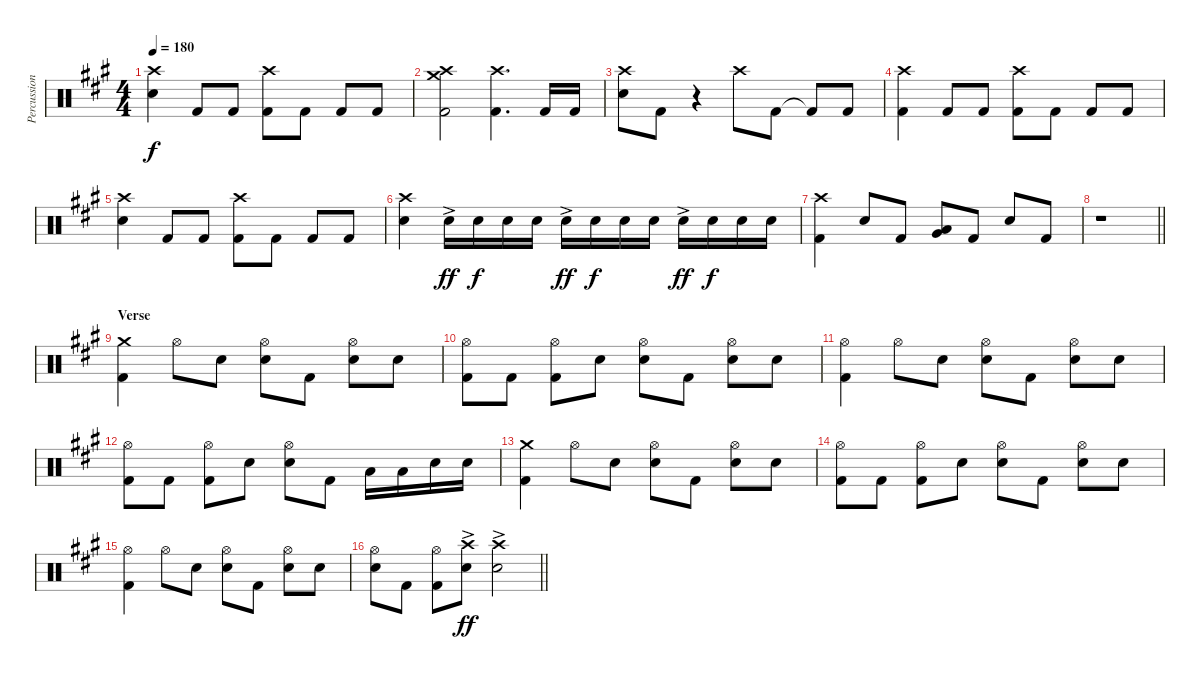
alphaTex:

\track ("Percussion" "Percussion") {instrument percussion}
\staff {score}
\articulation defaults
\ts (4 4)
\tempo 180
\clef neutral
\ks f#minor
("Crash high (hit)" "Electric Snare (hit)").4{dy f} "Kick (hit) 2".8 "Kick (hit) 2".8 ("Crash high (hit)" "Kick (hit) 2").8 "Kick (hit) 2".8 "Kick (hit) 2".8 "Kick (hit) 2".8 |
("Crash medium (hit)" "Crash high (hit)" "Kick (hit) 2").2 ("Crash high (hit)" "Kick (hit) 2").4{d} "Kick (hit) 2".16 "Kick (hit) 2".16 |
("Crash high (hit)" "Electric Snare (hit)").8 "Kick (hit) 2".8 r.4 "Crash high (hit)".8 "Kick (hit) 2".8 "Kick (hit) 2"{t}.8 "Kick (hit) 2".8 |
("Crash high (hit)" "Kick (hit) 2").4 "Kick (hit) 2".8 "Kick (hit) 2".8 ("Crash high (hit)" "Kick (hit) 2").8 "Kick (hit) 2".8 "Kick (hit) 2".8 "Kick (hit) 2".8 |
("Crash high (hit)" "Electric Snare (hit)").4 "Kick (hit) 2".8 "Kick (hit) 2".8 ("Crash high (hit)" "Kick (hit) 2").8 "Kick (hit) 2".8 "Kick (hit) 2".8 "Kick (hit) 2".8 |
("Crash high (hit)" "Electric Snare (hit)").4 "Electric Snare (hit)"{ac}.16{dy ff} "Electric Snare (hit)".16{dy f} "Electric Snare (hit)".16 "Electric Snare (hit)".16 "Electric Snare (hit)"{ac}.16{dy ff} "Electric Snare (hit)".16{dy f} "Electric Snare (hit)".16 "Electric Snare (hit)".16 "Electric Snare (hit)"{ac}.16{dy ff} "Electric Snare (hit)".16{dy f} "Electric Snare (hit)".16 "Electric Snare (hit)".16 |
("Crash high (hit)" "Kick (hit) 2").4 "Electric Snare (hit)".8 "Kick (hit) 2".8 ("Low Tom (hit)" "Very Low Tom (hit)").8 "Kick (hit) 2".8 "Electric Snare (hit)".8 "Kick (hit) 2".8 |
\barLineRight lightlight
r.1 |
\section ("" "Verse")
("Crash medium (hit)" "Kick (hit) 2").4{volume 10} "Hi-Hat (open)".8 "Electric Snare (hit)".8 ("Hi-Hat (open)" "Electric Snare (hit)").8 "Kick (hit) 2".8 ("Hi-Hat (open)" "Electric Snare (hit)").8 "Electric Snare (hit)".8 |
("Hi-Hat (open)" "Kick (hit) 2").8 "Kick (hit) 2".8 ("Hi-Hat (open)" "Kick (hit) 2").8 "Electric Snare (hit)".8 ("Hi-Hat (open)" "Electric Snare (hit)").8 "Kick (hit) 2".8 ("Hi-Hat (open)" "Electric Snare (hit)").8 "Electric Snare (hit)".8 |
("Hi-Hat (open)" "Kick (hit) 2").4 "Hi-Hat (open)".8 "Electric Snare (hit)".8 ("Hi-Hat (open)" "Electric Snare (hit)").8 "Kick (hit) 2".8 ("Hi-Hat (open)" "Electric Snare (hit)").8 "Electric Snare (hit)".8 |
("Hi-Hat (open)" "Kick (hit) 2").8 "Kick (hit) 2".8 ("Hi-Hat (open)" "Kick (hit) 2").8 "Electric Snare (hit)".8 ("Hi-Hat (open)" "Electric Snare (hit)").8 "Kick (hit) 2".8 "Low Tom (hit)".16 "Low Floor Tom (hit)".16 "Electric Snare (hit)".16 "Electric Snare (hit)".16 |
("Crash medium (hit)" "Kick (hit) 2").4 "Hi-Hat (open)".8 "Electric Snare (hit)".8 ("Hi-Hat (open)" "Electric Snare (hit)").8 "Kick (hit) 2".8 ("Hi-Hat (open)" "Electric Snare (hit)").8 "Electric Snare (hit)".8 |
("Hi-Hat (open)" "Kick (hit) 2").8 "Kick (hit) 2".8 ("Hi-Hat (open)" "Kick (hit) 2").8 "Electric Snare (hit)".8 ("Hi-Hat (open)" "Electric Snare (hit)").8 "Kick (hit) 2".8 ("Hi-Hat (open)" "Electric Snare (hit)").8 "Electric Snare (hit)".8 |
("Hi-Hat (open)" "Kick (hit) 2").4 "Hi-Hat (open)".8 "Electric Snare (hit)".8 ("Hi-Hat (open)" "Electric Snare (hit)").8 "Kick (hit) 2".8 ("Hi-Hat (open)" "Electric Snare (hit)").8 "Electric Snare (hit)".8 |
\barLineRight lightlight
("Hi-Hat (open)" "Electric Snare (hit)").8 "Kick (hit) 2".8 ("Hi-Hat (open)" "Kick (hit) 2").8 ("Crash high (hit)" "Electric Snare (hit)"{ac}).8{dy ff volume 14} ("Crash high (hit)" "Electric Snare (hit)"{ac}).2
